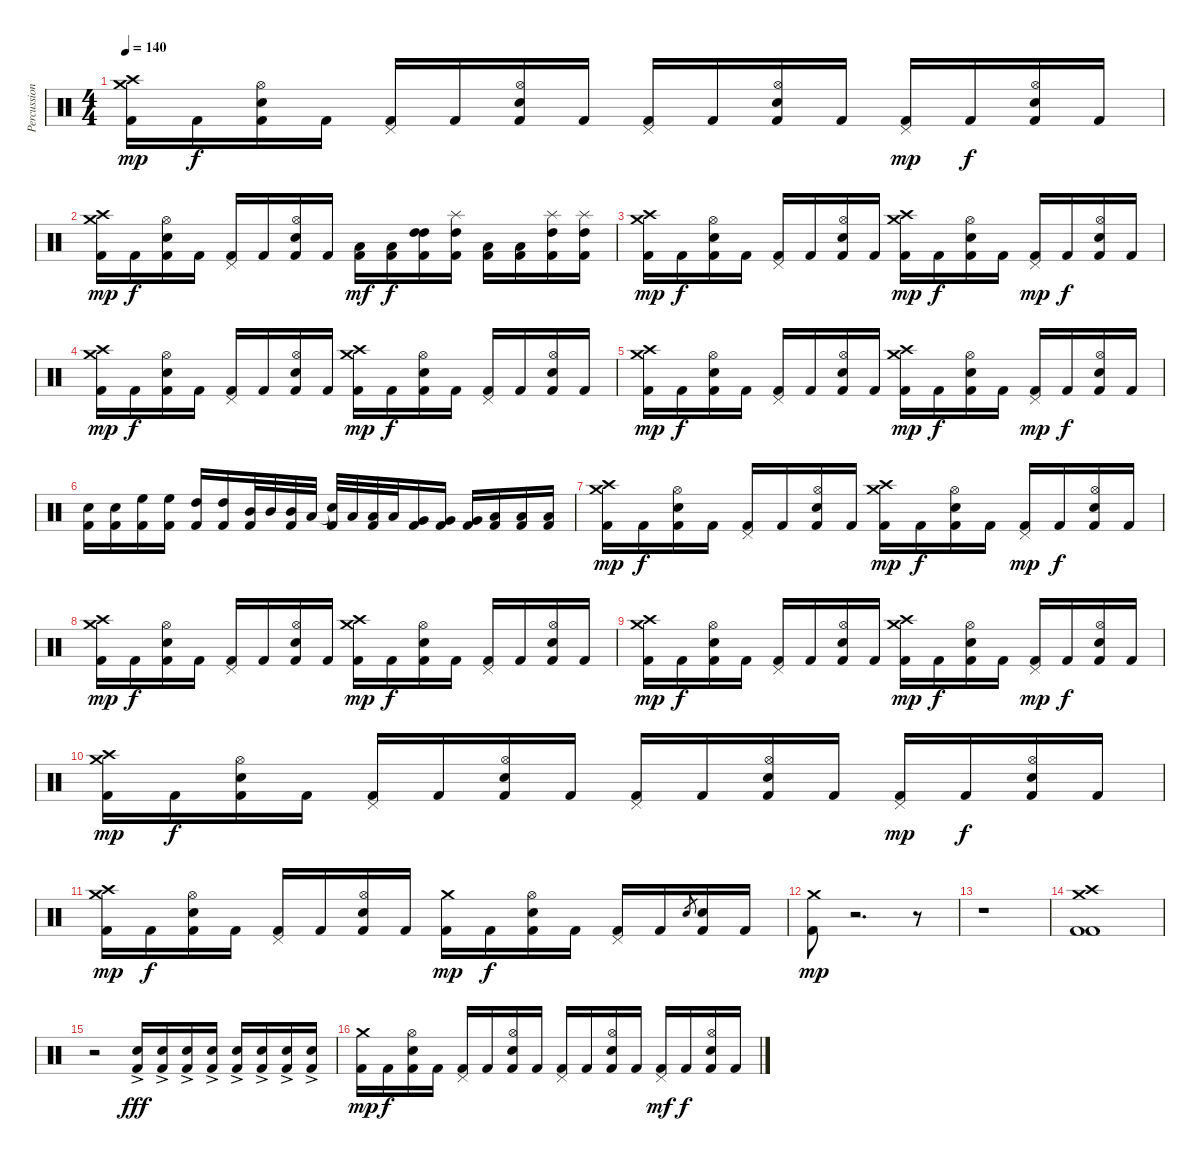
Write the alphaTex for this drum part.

\track ("Percussion" "Percussion") {instrument percussion}
\staff {score}
\articulation defaults
\ts (4 4)
\tempo 140
\clef neutral
\ks c
("Crash medium (hit)" "Crash high (hit)" "Kick (hit) 2").16{dy mp} "Kick (hit) 2".16{dy f} ("Hi-Hat (open)" "Electric Snare (hit)" "Kick (hit) 2").16 "Kick (hit) 2".16 ("Pedal Hi-Hat (hit)" "Kick (hit) 2").16 "Kick (hit) 2".16 ("Hi-Hat (open)" "Electric Snare (hit)" "Kick (hit) 2").16 "Kick (hit) 2".16 ("Pedal Hi-Hat (hit)" "Kick (hit) 2").16 "Kick (hit) 2".16 ("Hi-Hat (open)" "Electric Snare (hit)" "Kick (hit) 2").16 "Kick (hit) 2".16 ("Pedal Hi-Hat (hit)" "Kick (hit) 2").16{dy mp} "Kick (hit) 2".16{dy f} ("Hi-Hat (open)" "Electric Snare (hit)" "Kick (hit) 2").16 "Kick (hit) 2".16 |
("Crash high (hit)" "Crash medium (hit)" "Kick (hit) 2").16{dy mp} "Kick (hit) 2".16{dy f} ("Hi-Hat (open)" "Electric Snare (hit)" "Kick (hit) 2").16 "Kick (hit) 2".16 ("Pedal Hi-Hat (hit)" "Kick (hit) 2").16 "Kick (hit) 2".16 ("Hi-Hat (open)" "Electric Snare (hit)" "Kick (hit) 2").16 "Kick (hit) 2".16 ("Low Tom (hit)" "Kick (hit) 2").16{dy mf} ("Low Tom (hit)" "Kick (hit) 2").16{dy f} ("High Tom (hit)" "High Tom (hit)" "Kick (hit) 2").16 ("Splash (hit)" "High Tom (hit)" "Kick (hit) 2").16 ("Low Tom (hit)" "Kick (hit) 2").16 ("Low Tom (hit)" "Kick (hit) 2").16 ("Splash (hit)" "High Tom (hit)" "Kick (hit) 2").16 ("Splash (hit)" "High Tom (hit)" "Kick (hit) 2").16 |
("Crash medium (hit)" "Crash high (hit)" "Kick (hit) 2").16{dy mp} "Kick (hit) 2".16{dy f} ("Hi-Hat (open)" "Electric Snare (hit)" "Kick (hit) 2").16 "Kick (hit) 2".16 ("Pedal Hi-Hat (hit)" "Kick (hit) 2").16 "Kick (hit) 2".16 ("Hi-Hat (open)" "Electric Snare (hit)" "Kick (hit) 2").16 "Kick (hit) 2".16 ("Crash high (hit)" "Crash medium (hit)" "Kick (hit) 2").16{dy mp} "Kick (hit) 2".16{dy f} ("Hi-Hat (open)" "Electric Snare (hit)" "Kick (hit) 2").16 "Kick (hit) 2".16 ("Pedal Hi-Hat (hit)" "Kick (hit) 2").16{dy mp} "Kick (hit) 2".16{dy f} ("Hi-Hat (open)" "Electric Snare (hit)" "Kick (hit) 2").16 "Kick (hit) 2".16 |
("Crash medium (hit)" "Crash high (hit)" "Kick (hit) 2").16{dy mp} "Kick (hit) 2".16{dy f} ("Hi-Hat (open)" "Electric Snare (hit)" "Kick (hit) 2").16 "Kick (hit) 2".16 ("Pedal Hi-Hat (hit)" "Kick (hit) 2").16 "Kick (hit) 2".16 ("Hi-Hat (open)" "Electric Snare (hit)" "Kick (hit) 2").16 "Kick (hit) 2".16 ("Crash high (hit)" "Crash medium (hit)" "Kick (hit) 2").16{dy mp} "Kick (hit) 2".16{dy f} ("Hi-Hat (open)" "Electric Snare (hit)" "Kick (hit) 2").16 "Kick (hit) 2".16 ("Pedal Hi-Hat (hit)" "Kick (hit) 2").16 "Kick (hit) 2".16 ("Hi-Hat (open)" "Electric Snare (hit)" "Kick (hit) 2").16 "Kick (hit) 2".16 |
("Crash medium (hit)" "Crash high (hit)" "Kick (hit) 2").16{dy mp} "Kick (hit) 2".16{dy f} ("Hi-Hat (open)" "Electric Snare (hit)" "Kick (hit) 2").16 "Kick (hit) 2".16 ("Pedal Hi-Hat (hit)" "Kick (hit) 2").16 "Kick (hit) 2".16 ("Hi-Hat (open)" "Electric Snare (hit)" "Kick (hit) 2").16 "Kick (hit) 2".16 ("Crash high (hit)" "Crash medium (hit)" "Kick (hit) 2").16{dy mp} "Kick (hit) 2".16{dy f} ("Hi-Hat (open)" "Electric Snare (hit)" "Kick (hit) 2").16 "Kick (hit) 2".16 ("Pedal Hi-Hat (hit)" "Kick (hit) 2").16{dy mp} "Kick (hit) 2".16{dy f} ("Hi-Hat (open)" "Electric Snare (hit)" "Kick (hit) 2").16 "Kick (hit) 2".16 |
("Electric Snare (hit)" "Kick (hit) 2").16 ("Electric Snare (hit)" "Kick (hit) 2").16 ("High Floor Tom (hit)" "Kick (hit) 2").16 ("High Floor Tom (hit)" "Kick (hit) 2").16 ("High Tom (hit)" "Kick (hit) 2").16 ("High Tom (hit)" "Kick (hit) 2").16 ("Mid Tom (hit)" "Kick (hit) 2").32 "Mid Tom (hit)".32 ("Mid Tom (hit)" "Kick (hit) 2").32 "Low Tom (hit)".32 ("Snare (hit)"{t} "Kick (hit) 2").32 "Low Tom (hit)".32 ("Low Tom (hit)" "Kick (hit) 2").32 "Low Tom (hit)".32 ("Very Low Tom (hit)" "Kick (hit) 2").16 ("Very Low Tom (hit)" "Kick (hit) 2").16 ("Very Low Tom (hit)" "Kick (hit) 2").16 ("Low Floor Tom (hit)" "Kick (hit) 2").16 ("Low Floor Tom (hit)" "Kick (hit) 2").16 ("Low Floor Tom (hit)" "Kick (hit) 2").16 |
("Crash medium (hit)" "Crash high (hit)" "Kick (hit) 2").16{dy mp} "Kick (hit) 2".16{dy f} ("Hi-Hat (open)" "Electric Snare (hit)" "Kick (hit) 2").16 "Kick (hit) 2".16 ("Pedal Hi-Hat (hit)" "Kick (hit) 2").16 "Kick (hit) 2".16 ("Hi-Hat (open)" "Electric Snare (hit)" "Kick (hit) 2").16 "Kick (hit) 2".16 ("Crash high (hit)" "Crash medium (hit)" "Kick (hit) 2").16{dy mp} "Kick (hit) 2".16{dy f} ("Hi-Hat (open)" "Electric Snare (hit)" "Kick (hit) 2").16 "Kick (hit) 2".16 ("Pedal Hi-Hat (hit)" "Kick (hit) 2").16{dy mp} "Kick (hit) 2".16{dy f} ("Hi-Hat (open)" "Electric Snare (hit)" "Kick (hit) 2").16 "Kick (hit) 2".16 |
("Crash medium (hit)" "Crash high (hit)" "Kick (hit) 2").16{dy mp} "Kick (hit) 2".16{dy f} ("Hi-Hat (open)" "Electric Snare (hit)" "Kick (hit) 2").16 "Kick (hit) 2".16 ("Pedal Hi-Hat (hit)" "Kick (hit) 2").16 "Kick (hit) 2".16 ("Hi-Hat (open)" "Electric Snare (hit)" "Kick (hit) 2").16 "Kick (hit) 2".16 ("Crash high (hit)" "Crash medium (hit)" "Kick (hit) 2").16{dy mp} "Kick (hit) 2".16{dy f} ("Hi-Hat (open)" "Electric Snare (hit)" "Kick (hit) 2").16 "Kick (hit) 2".16 ("Pedal Hi-Hat (hit)" "Kick (hit) 2").16 "Kick (hit) 2".16 ("Hi-Hat (open)" "Electric Snare (hit)" "Kick (hit) 2").16 "Kick (hit) 2".16 |
("Crash medium (hit)" "Crash high (hit)" "Kick (hit) 2").16{dy mp} "Kick (hit) 2".16{dy f} ("Hi-Hat (open)" "Electric Snare (hit)" "Kick (hit) 2").16 "Kick (hit) 2".16 ("Pedal Hi-Hat (hit)" "Kick (hit) 2").16 "Kick (hit) 2".16 ("Hi-Hat (open)" "Electric Snare (hit)" "Kick (hit) 2").16 "Kick (hit) 2".16 ("Crash high (hit)" "Crash medium (hit)" "Kick (hit) 2").16{dy mp} "Kick (hit) 2".16{dy f} ("Hi-Hat (open)" "Electric Snare (hit)" "Kick (hit) 2").16 "Kick (hit) 2".16 ("Pedal Hi-Hat (hit)" "Kick (hit) 2").16{dy mp} "Kick (hit) 2".16{dy f} ("Hi-Hat (open)" "Electric Snare (hit)" "Kick (hit) 2").16 "Kick (hit) 2".16 |
("Crash medium (hit)" "Crash high (hit)" "Kick (hit) 2").16{dy mp} "Kick (hit) 2".16{dy f} ("Hi-Hat (open)" "Electric Snare (hit)" "Kick (hit) 2").16 "Kick (hit) 2".16 ("Pedal Hi-Hat (hit)" "Kick (hit) 2").16 "Kick (hit) 2".16 ("Hi-Hat (open)" "Electric Snare (hit)" "Kick (hit) 2").16 "Kick (hit) 2".16 ("Pedal Hi-Hat (hit)" "Kick (hit) 2").16 "Kick (hit) 2".16 ("Hi-Hat (open)" "Electric Snare (hit)" "Kick (hit) 2").16 "Kick (hit) 2".16 ("Pedal Hi-Hat (hit)" "Kick (hit) 2").16{dy mp} "Kick (hit) 2".16{dy f} ("Hi-Hat (open)" "Electric Snare (hit)" "Kick (hit) 2").16 "Kick (hit) 2".16 |
("Crash medium (hit)" "Crash high (hit)" "Kick (hit) 2").16{dy mp} "Kick (hit) 2".16{dy f} ("Hi-Hat (open)" "Electric Snare (hit)" "Kick (hit) 2").16 "Kick (hit) 2".16 ("Pedal Hi-Hat (hit)" "Kick (hit) 2").16 "Kick (hit) 2".16 ("Hi-Hat (open)" "Electric Snare (hit)" "Kick (hit) 2").16 "Kick (hit) 2".16 ("Crash medium (hit)" "Kick (hit) 2").16{dy mp} "Kick (hit) 2".16{dy f} ("Hi-Hat (open)" "Electric Snare (hit)" "Kick (hit) 2").16 "Kick (hit) 2".16 ("Pedal Hi-Hat (hit)" "Kick (hit) 2").16 "Kick (hit) 2".16 "Electric Snare (hit)".8{gr} ("Electric Snare (hit)" "Kick (hit) 2").16 "Kick (hit) 2".16 |
("Crash medium (hit)" "Kick (hit) 2").8{dy mp} r.2{d} r.8 |
r.1 |
("Crash medium (hit)" "Crash high (hit)" "Kick (hit) 2" "Kick (hit) 2").1 |
r.2 ("Electric Snare (hit)"{ac} "Kick (hit) 2").16{dy fff} ("Electric Snare (hit)"{ac} "Kick (hit) 2").16 ("Electric Snare (hit)"{ac} "Kick (hit) 2").16 ("Electric Snare (hit)"{ac} "Kick (hit) 2").16 ("Electric Snare (hit)"{ac} "Kick (hit) 2").16 ("Electric Snare (hit)"{ac} "Kick (hit) 2").16 ("Electric Snare (hit)"{ac} "Kick (hit) 2").16 ("Electric Snare (hit)"{ac} "Kick (hit) 2").16 |
("Crash medium (hit)" "Kick (hit) 2").16{dy mp} "Kick (hit) 2".16{dy f} ("Hi-Hat (open)" "Electric Snare (hit)" "Kick (hit) 2").16 "Kick (hit) 2".16 ("Pedal Hi-Hat (hit)" "Kick (hit) 2").16 "Kick (hit) 2".16 ("Hi-Hat (open)" "Electric Snare (hit)" "Kick (hit) 2").16 "Kick (hit) 2".16 ("Pedal Hi-Hat (hit)" "Kick (hit) 2").16 "Kick (hit) 2".16 ("Hi-Hat (open)" "Electric Snare (hit)" "Kick (hit) 2").16 "Kick (hit) 2".16 ("Pedal Hi-Hat (hit)" "Kick (hit) 2").16{dy mf} "Kick (hit) 2".16{dy f} ("Hi-Hat (open)" "Electric Snare (hit)" "Kick (hit) 2").16 "Kick (hit) 2".16
